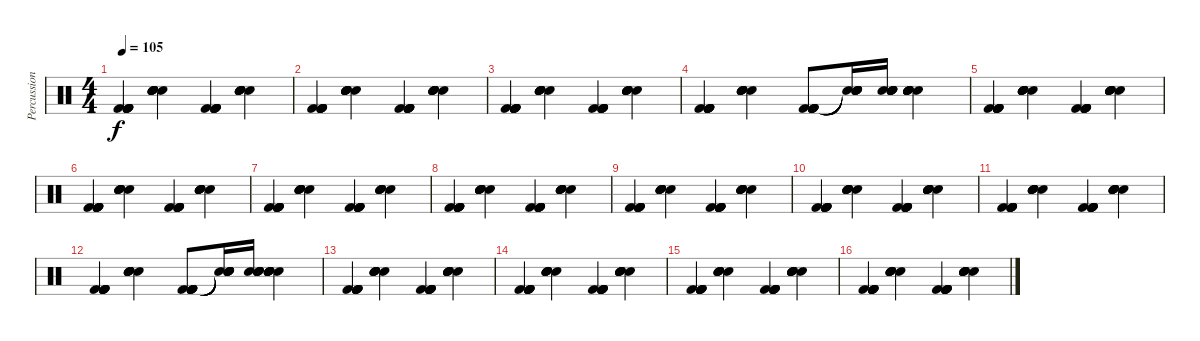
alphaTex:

\track ("Percussion" "Percussion") {instrument percussion}
\staff {score}
\articulation defaults
\ts (4 4)
\tempo 105
\clef neutral
\ks c
("Kick (hit) 2" "Kick (hit) 2" "Kick (hit) 2" "Kick (hit) 2" "Kick (hit) 2" "Kick (hit) 2").4{dy f} ("Electric Snare (hit)" "Electric Snare (hit)" "Electric Snare (hit)" "Electric Snare (hit)" "Electric Snare (hit)" "Electric Snare (hit)").4 ("Kick (hit) 2" "Kick (hit) 2" "Kick (hit) 2" "Kick (hit) 2" "Kick (hit) 2" "Kick (hit) 2").4 ("Electric Snare (hit)" "Electric Snare (hit)" "Electric Snare (hit)" "Electric Snare (hit)" "Electric Snare (hit)" "Electric Snare (hit)").4 |
("Kick (hit) 2" "Kick (hit) 2" "Kick (hit) 2" "Kick (hit) 2" "Kick (hit) 2" "Kick (hit) 2").4 ("Electric Snare (hit)" "Electric Snare (hit)" "Electric Snare (hit)" "Electric Snare (hit)" "Electric Snare (hit)" "Electric Snare (hit)").4 ("Kick (hit) 2" "Kick (hit) 2" "Kick (hit) 2" "Kick (hit) 2" "Kick (hit) 2" "Kick (hit) 2").4 ("Electric Snare (hit)" "Electric Snare (hit)" "Electric Snare (hit)" "Electric Snare (hit)" "Electric Snare (hit)" "Electric Snare (hit)").4 |
("Kick (hit) 2" "Kick (hit) 2" "Kick (hit) 2" "Kick (hit) 2" "Kick (hit) 2" "Kick (hit) 2").4 ("Electric Snare (hit)" "Electric Snare (hit)" "Electric Snare (hit)" "Electric Snare (hit)" "Electric Snare (hit)" "Electric Snare (hit)").4 ("Kick (hit) 2" "Kick (hit) 2" "Kick (hit) 2" "Kick (hit) 2" "Kick (hit) 2" "Kick (hit) 2").4 ("Electric Snare (hit)" "Electric Snare (hit)" "Electric Snare (hit)" "Electric Snare (hit)" "Electric Snare (hit)" "Electric Snare (hit)").4 |
("Kick (hit) 2" "Kick (hit) 2" "Kick (hit) 2" "Kick (hit) 2" "Kick (hit) 2" "Kick (hit) 2").4 ("Electric Snare (hit)" "Electric Snare (hit)" "Electric Snare (hit)" "Electric Snare (hit)" "Electric Snare (hit)" "Electric Snare (hit)").4 ("Kick (hit) 2" "Kick (hit) 2" "Kick (hit) 2" "Kick (hit) 2" "Kick (hit) 2" "Kick (hit) 2").8 ("Electric Snare (hit)"{t} "Electric Snare (hit)"{t} "Electric Snare (hit)"{t} "Electric Snare (hit)"{t} "Electric Snare (hit)"{t} "Electric Snare (hit)"{t}).16 ("Electric Snare (hit)" "Electric Snare (hit)" "Electric Snare (hit)" "Electric Snare (hit)" "Electric Snare (hit)" "Electric Snare (hit)").16 ("Electric Snare (hit)" "Electric Snare (hit)" "Electric Snare (hit)" "Electric Snare (hit)" "Electric Snare (hit)" "Electric Snare (hit)").4 |
("Kick (hit) 2" "Kick (hit) 2" "Kick (hit) 2" "Kick (hit) 2" "Kick (hit) 2" "Kick (hit) 2").4 ("Electric Snare (hit)" "Electric Snare (hit)" "Electric Snare (hit)" "Electric Snare (hit)" "Electric Snare (hit)" "Electric Snare (hit)").4 ("Kick (hit) 2" "Kick (hit) 2" "Kick (hit) 2" "Kick (hit) 2" "Kick (hit) 2" "Kick (hit) 2").4 ("Electric Snare (hit)" "Electric Snare (hit)" "Electric Snare (hit)" "Electric Snare (hit)" "Electric Snare (hit)" "Electric Snare (hit)").4 |
("Kick (hit) 2" "Kick (hit) 2" "Kick (hit) 2" "Kick (hit) 2" "Kick (hit) 2" "Kick (hit) 2").4 ("Electric Snare (hit)" "Electric Snare (hit)" "Electric Snare (hit)" "Electric Snare (hit)" "Electric Snare (hit)" "Electric Snare (hit)").4 ("Kick (hit) 2" "Kick (hit) 2" "Kick (hit) 2" "Kick (hit) 2" "Kick (hit) 2" "Kick (hit) 2").4 ("Electric Snare (hit)" "Electric Snare (hit)" "Electric Snare (hit)" "Electric Snare (hit)" "Electric Snare (hit)" "Electric Snare (hit)").4 |
("Kick (hit) 2" "Kick (hit) 2" "Kick (hit) 2" "Kick (hit) 2" "Kick (hit) 2" "Kick (hit) 2").4 ("Electric Snare (hit)" "Electric Snare (hit)" "Electric Snare (hit)" "Electric Snare (hit)" "Electric Snare (hit)" "Electric Snare (hit)").4 ("Kick (hit) 2" "Kick (hit) 2" "Kick (hit) 2" "Kick (hit) 2" "Kick (hit) 2" "Kick (hit) 2").4 ("Electric Snare (hit)" "Electric Snare (hit)" "Electric Snare (hit)" "Electric Snare (hit)" "Electric Snare (hit)" "Electric Snare (hit)").4 |
("Kick (hit) 2" "Kick (hit) 2" "Kick (hit) 2" "Kick (hit) 2" "Kick (hit) 2" "Kick (hit) 2").4 ("Electric Snare (hit)" "Electric Snare (hit)" "Electric Snare (hit)" "Electric Snare (hit)" "Electric Snare (hit)" "Electric Snare (hit)").4 ("Kick (hit) 2" "Kick (hit) 2" "Kick (hit) 2" "Kick (hit) 2" "Kick (hit) 2" "Kick (hit) 2").4 ("Electric Snare (hit)" "Electric Snare (hit)" "Electric Snare (hit)" "Electric Snare (hit)" "Electric Snare (hit)" "Electric Snare (hit)").4 |
("Kick (hit) 2" "Kick (hit) 2" "Kick (hit) 2" "Kick (hit) 2" "Kick (hit) 2" "Kick (hit) 2").4 ("Electric Snare (hit)" "Electric Snare (hit)" "Electric Snare (hit)" "Electric Snare (hit)" "Electric Snare (hit)" "Electric Snare (hit)").4 ("Kick (hit) 2" "Kick (hit) 2" "Kick (hit) 2" "Kick (hit) 2" "Kick (hit) 2" "Kick (hit) 2").4 ("Electric Snare (hit)" "Electric Snare (hit)" "Electric Snare (hit)" "Electric Snare (hit)" "Electric Snare (hit)" "Electric Snare (hit)").4 |
("Kick (hit) 2" "Kick (hit) 2" "Kick (hit) 2" "Kick (hit) 2" "Kick (hit) 2" "Kick (hit) 2").4 ("Electric Snare (hit)" "Electric Snare (hit)" "Electric Snare (hit)" "Electric Snare (hit)" "Electric Snare (hit)" "Electric Snare (hit)").4 ("Kick (hit) 2" "Kick (hit) 2" "Kick (hit) 2" "Kick (hit) 2" "Kick (hit) 2" "Kick (hit) 2").4 ("Electric Snare (hit)" "Electric Snare (hit)" "Electric Snare (hit)" "Electric Snare (hit)" "Electric Snare (hit)" "Electric Snare (hit)").4 |
("Kick (hit) 2" "Kick (hit) 2" "Kick (hit) 2" "Kick (hit) 2" "Kick (hit) 2" "Kick (hit) 2").4 ("Electric Snare (hit)" "Electric Snare (hit)" "Electric Snare (hit)" "Electric Snare (hit)" "Electric Snare (hit)" "Electric Snare (hit)").4 ("Kick (hit) 2" "Kick (hit) 2" "Kick (hit) 2" "Kick (hit) 2" "Kick (hit) 2" "Kick (hit) 2").4 ("Electric Snare (hit)" "Electric Snare (hit)" "Electric Snare (hit)" "Electric Snare (hit)" "Electric Snare (hit)" "Electric Snare (hit)").4 |
("Kick (hit) 2" "Kick (hit) 2" "Kick (hit) 2" "Kick (hit) 2" "Kick (hit) 2" "Kick (hit) 2").4 ("Electric Snare (hit)" "Electric Snare (hit)" "Electric Snare (hit)" "Electric Snare (hit)" "Electric Snare (hit)" "Electric Snare (hit)").4 ("Kick (hit) 2" "Kick (hit) 2" "Kick (hit) 2" "Kick (hit) 2" "Kick (hit) 2" "Kick (hit) 2").8 ("Electric Snare (hit)"{t} "Electric Snare (hit)"{t} "Electric Snare (hit)"{t} "Electric Snare (hit)"{t} "Electric Snare (hit)"{t} "Electric Snare (hit)"{t}).16 ("Electric Snare (hit)" "Electric Snare (hit)" "Electric Snare (hit)" "Electric Snare (hit)" "Electric Snare (hit)" "Electric Snare (hit)").16 ("Electric Snare (hit)" "Electric Snare (hit)" "Electric Snare (hit)" "Electric Snare (hit)" "Electric Snare (hit)" "Electric Snare (hit)").4 |
("Kick (hit) 2" "Kick (hit) 2" "Kick (hit) 2" "Kick (hit) 2" "Kick (hit) 2" "Kick (hit) 2").4 ("Electric Snare (hit)" "Electric Snare (hit)" "Electric Snare (hit)" "Electric Snare (hit)" "Electric Snare (hit)" "Electric Snare (hit)").4 ("Kick (hit) 2" "Kick (hit) 2" "Kick (hit) 2" "Kick (hit) 2" "Kick (hit) 2" "Kick (hit) 2").4 ("Electric Snare (hit)" "Electric Snare (hit)" "Electric Snare (hit)" "Electric Snare (hit)" "Electric Snare (hit)" "Electric Snare (hit)").4 |
("Kick (hit) 2" "Kick (hit) 2" "Kick (hit) 2" "Kick (hit) 2" "Kick (hit) 2" "Kick (hit) 2").4 ("Electric Snare (hit)" "Electric Snare (hit)" "Electric Snare (hit)" "Electric Snare (hit)" "Electric Snare (hit)" "Electric Snare (hit)").4 ("Kick (hit) 2" "Kick (hit) 2" "Kick (hit) 2" "Kick (hit) 2" "Kick (hit) 2" "Kick (hit) 2").4 ("Electric Snare (hit)" "Electric Snare (hit)" "Electric Snare (hit)" "Electric Snare (hit)" "Electric Snare (hit)" "Electric Snare (hit)").4 |
("Kick (hit) 2" "Kick (hit) 2" "Kick (hit) 2" "Kick (hit) 2" "Kick (hit) 2" "Kick (hit) 2").4 ("Electric Snare (hit)" "Electric Snare (hit)" "Electric Snare (hit)" "Electric Snare (hit)" "Electric Snare (hit)" "Electric Snare (hit)").4 ("Kick (hit) 2" "Kick (hit) 2" "Kick (hit) 2" "Kick (hit) 2" "Kick (hit) 2" "Kick (hit) 2").4 ("Electric Snare (hit)" "Electric Snare (hit)" "Electric Snare (hit)" "Electric Snare (hit)" "Electric Snare (hit)" "Electric Snare (hit)").4 |
("Kick (hit) 2" "Kick (hit) 2" "Kick (hit) 2" "Kick (hit) 2" "Kick (hit) 2" "Kick (hit) 2").4 ("Electric Snare (hit)" "Electric Snare (hit)" "Electric Snare (hit)" "Electric Snare (hit)" "Electric Snare (hit)" "Electric Snare (hit)").4 ("Kick (hit) 2" "Kick (hit) 2" "Kick (hit) 2" "Kick (hit) 2" "Kick (hit) 2" "Kick (hit) 2").4 ("Electric Snare (hit)" "Electric Snare (hit)" "Electric Snare (hit)" "Electric Snare (hit)" "Electric Snare (hit)" "Electric Snare (hit)").4
